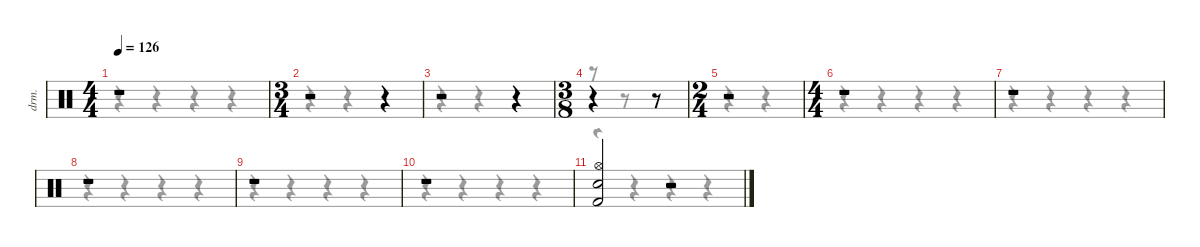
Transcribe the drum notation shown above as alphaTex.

\defaultSystemsLayout 4
\hideDynamics
\bracketExtendMode nobrackets
\otherSystemsTrackNameOrientation horizontal
\track ("drums" "drm.") {instrument percussion}
\staff {score}
\articulation defaults
\voice
\ts (4 4)
\tempo 126
\clef neutral
\ks c
r.1{dy f} |
\ts (3 4)
\beaming (8 3 1 1 1)
r.2 r.4 |
r.2 r.4 |
\ts (3 8)
\beaming (8 3)
r.4 r.8 |
\ts (2 4)
\beaming (8 1 1 1 1)
r.2 |
\ts (4 4)
\beaming (8 2 2 2 2)
r.1 |
r.1 |
r.1 |
r.1 |
r.1 |
("Snare (hit) 2" "Hi-Hat (open)" "Kick (hit) 2").2 r.2
\voice
\clef neutral
\ottava regular
\simile none
\ks c
r.4{dy mf} r.4 r.4 r.4 |
r.4 r.4 r.4 |
r.4 r.4 r.4 |
r.8 r.8 r.8 |
r.4 r.4 |
r.4 r.4 r.4 r.4 |
r.4 r.4 r.4 r.4 |
r.4 r.4 r.4 r.4 |
r.4 r.4 r.4 r.4 |
r.4 r.4 r.4 r.4 |
r.4 r.4 r.4 r.4
